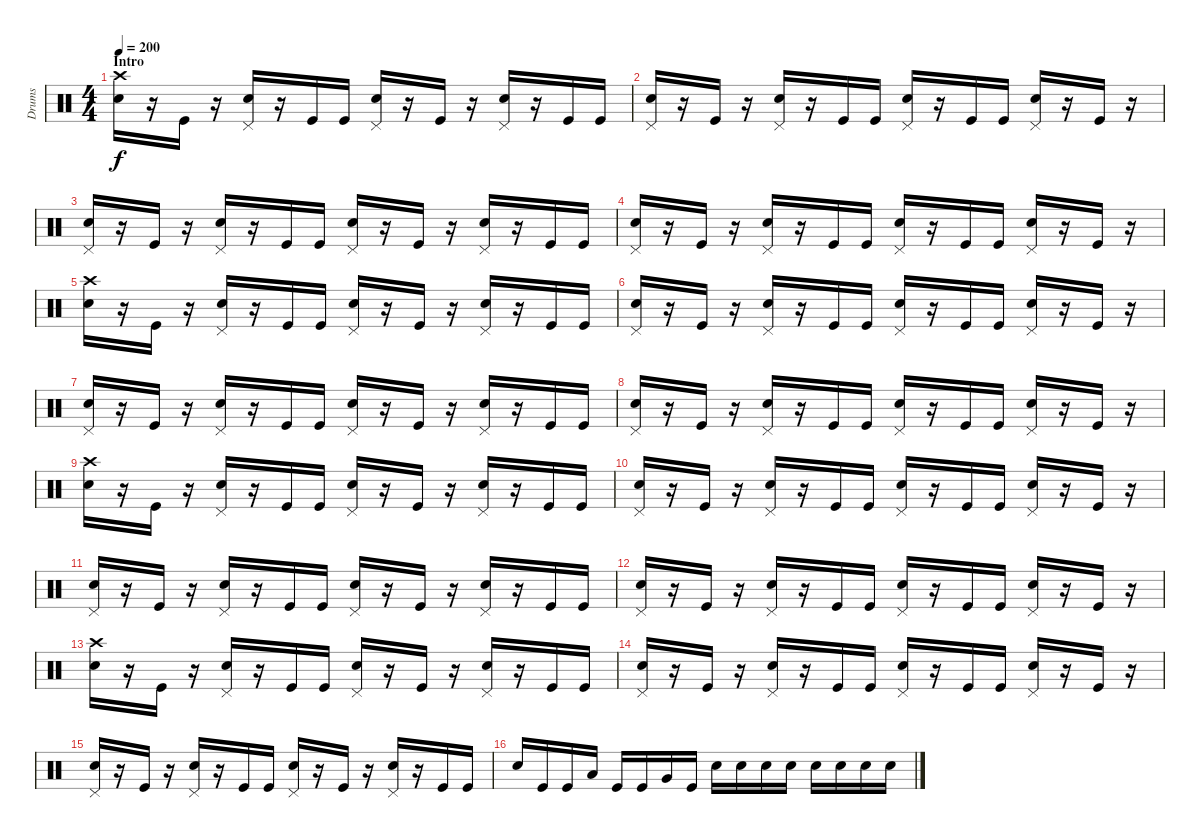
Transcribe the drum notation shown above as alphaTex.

\track ("Drums" "Drums") {instrument percussion}
\staff {score}
\articulation defaults
\ts (4 4)
\section ("" "Intro")
\tempo 200
\clef neutral
\ks c
("Crash high (hit)" "Snare (hit) 2").16{dy f} r.16 "Kick (hit)".16 r.16 ("Pedal Hi-Hat (hit)" "Snare (hit) 2").16 r.16 "Kick (hit)".16 "Kick (hit)".16 ("Pedal Hi-Hat (hit)" "Snare (hit) 2").16 r.16 "Kick (hit)".16 r.16 ("Pedal Hi-Hat (hit)" "Snare (hit) 2").16 r.16 "Kick (hit)".16 "Kick (hit)".16 |
("Pedal Hi-Hat (hit)" "Snare (hit) 2").16 r.16 "Kick (hit)".16 r.16 ("Pedal Hi-Hat (hit)" "Snare (hit) 2").16 r.16 "Kick (hit)".16 "Kick (hit)".16 ("Pedal Hi-Hat (hit)" "Snare (hit) 2").16 r.16 "Kick (hit)".16 "Kick (hit)".16 ("Pedal Hi-Hat (hit)" "Snare (hit) 2").16 r.16 "Kick (hit)".16 r.16 |
("Pedal Hi-Hat (hit)" "Snare (hit) 2").16 r.16 "Kick (hit)".16 r.16 ("Pedal Hi-Hat (hit)" "Snare (hit) 2").16 r.16 "Kick (hit)".16 "Kick (hit)".16 ("Pedal Hi-Hat (hit)" "Snare (hit) 2").16 r.16 "Kick (hit)".16 r.16 ("Pedal Hi-Hat (hit)" "Snare (hit) 2").16 r.16 "Kick (hit)".16 "Kick (hit)".16 |
("Pedal Hi-Hat (hit)" "Snare (hit) 2").16 r.16 "Kick (hit)".16 r.16 ("Pedal Hi-Hat (hit)" "Snare (hit) 2").16 r.16 "Kick (hit)".16 "Kick (hit)".16 ("Pedal Hi-Hat (hit)" "Snare (hit) 2").16 r.16 "Kick (hit)".16 "Kick (hit)".16 ("Pedal Hi-Hat (hit)" "Snare (hit) 2").16 r.16 "Kick (hit)".16 r.16 |
("Crash high (hit)" "Snare (hit) 2").16 r.16 "Kick (hit)".16 r.16 ("Pedal Hi-Hat (hit)" "Snare (hit) 2").16 r.16 "Kick (hit)".16 "Kick (hit)".16 ("Pedal Hi-Hat (hit)" "Snare (hit) 2").16 r.16 "Kick (hit)".16 r.16 ("Pedal Hi-Hat (hit)" "Snare (hit) 2").16 r.16 "Kick (hit)".16 "Kick (hit)".16 |
("Pedal Hi-Hat (hit)" "Snare (hit) 2").16 r.16 "Kick (hit)".16 r.16 ("Pedal Hi-Hat (hit)" "Snare (hit) 2").16 r.16 "Kick (hit)".16 "Kick (hit)".16 ("Pedal Hi-Hat (hit)" "Snare (hit) 2").16 r.16 "Kick (hit)".16 "Kick (hit)".16 ("Pedal Hi-Hat (hit)" "Snare (hit) 2").16 r.16 "Kick (hit)".16 r.16 |
("Pedal Hi-Hat (hit)" "Snare (hit) 2").16 r.16 "Kick (hit)".16 r.16 ("Pedal Hi-Hat (hit)" "Snare (hit) 2").16 r.16 "Kick (hit)".16 "Kick (hit)".16 ("Pedal Hi-Hat (hit)" "Snare (hit) 2").16 r.16 "Kick (hit)".16 r.16 ("Pedal Hi-Hat (hit)" "Snare (hit) 2").16 r.16 "Kick (hit)".16 "Kick (hit)".16 |
("Pedal Hi-Hat (hit)" "Snare (hit) 2").16 r.16 "Kick (hit)".16 r.16 ("Pedal Hi-Hat (hit)" "Snare (hit) 2").16 r.16 "Kick (hit)".16 "Kick (hit)".16 ("Pedal Hi-Hat (hit)" "Snare (hit) 2").16 r.16 "Kick (hit)".16 "Kick (hit)".16 ("Pedal Hi-Hat (hit)" "Snare (hit) 2").16 r.16 "Kick (hit)".16 r.16 |
("Crash high (hit)" "Snare (hit) 2").16 r.16 "Kick (hit)".16 r.16 ("Pedal Hi-Hat (hit)" "Snare (hit) 2").16 r.16 "Kick (hit)".16 "Kick (hit)".16 ("Pedal Hi-Hat (hit)" "Snare (hit) 2").16 r.16 "Kick (hit)".16 r.16 ("Pedal Hi-Hat (hit)" "Snare (hit) 2").16 r.16 "Kick (hit)".16 "Kick (hit)".16 |
("Pedal Hi-Hat (hit)" "Snare (hit) 2").16 r.16 "Kick (hit)".16 r.16 ("Pedal Hi-Hat (hit)" "Snare (hit) 2").16 r.16 "Kick (hit)".16 "Kick (hit)".16 ("Pedal Hi-Hat (hit)" "Snare (hit) 2").16 r.16 "Kick (hit)".16 "Kick (hit)".16 ("Pedal Hi-Hat (hit)" "Snare (hit) 2").16 r.16 "Kick (hit)".16 r.16 |
("Pedal Hi-Hat (hit)" "Snare (hit) 2").16 r.16 "Kick (hit)".16 r.16 ("Pedal Hi-Hat (hit)" "Snare (hit) 2").16 r.16 "Kick (hit)".16 "Kick (hit)".16 ("Pedal Hi-Hat (hit)" "Snare (hit) 2").16 r.16 "Kick (hit)".16 r.16 ("Pedal Hi-Hat (hit)" "Snare (hit) 2").16 r.16 "Kick (hit)".16 "Kick (hit)".16 |
("Pedal Hi-Hat (hit)" "Snare (hit) 2").16 r.16 "Kick (hit)".16 r.16 ("Pedal Hi-Hat (hit)" "Snare (hit) 2").16 r.16 "Kick (hit)".16 "Kick (hit)".16 ("Pedal Hi-Hat (hit)" "Snare (hit) 2").16 r.16 "Kick (hit)".16 "Kick (hit)".16 ("Pedal Hi-Hat (hit)" "Snare (hit) 2").16 r.16 "Kick (hit)".16 r.16 |
("Crash high (hit)" "Snare (hit) 2").16 r.16 "Kick (hit)".16 r.16 ("Pedal Hi-Hat (hit)" "Snare (hit) 2").16 r.16 "Kick (hit)".16 "Kick (hit)".16 ("Pedal Hi-Hat (hit)" "Snare (hit) 2").16 r.16 "Kick (hit)".16 r.16 ("Pedal Hi-Hat (hit)" "Snare (hit) 2").16 r.16 "Kick (hit)".16 "Kick (hit)".16 |
("Pedal Hi-Hat (hit)" "Snare (hit) 2").16 r.16 "Kick (hit)".16 r.16 ("Pedal Hi-Hat (hit)" "Snare (hit) 2").16 r.16 "Kick (hit)".16 "Kick (hit)".16 ("Pedal Hi-Hat (hit)" "Snare (hit) 2").16 r.16 "Kick (hit)".16 "Kick (hit)".16 ("Pedal Hi-Hat (hit)" "Snare (hit) 2").16 r.16 "Kick (hit)".16 r.16 |
("Pedal Hi-Hat (hit)" "Snare (hit) 2").16 r.16 "Kick (hit)".16 r.16 ("Pedal Hi-Hat (hit)" "Snare (hit) 2").16 r.16 "Kick (hit)".16 "Kick (hit)".16 ("Pedal Hi-Hat (hit)" "Snare (hit) 2").16 r.16 "Kick (hit)".16 r.16 ("Pedal Hi-Hat (hit)" "Snare (hit) 2").16 r.16 "Kick (hit)".16 "Kick (hit)".16 |
"Snare (hit) 2".16 "Kick (hit)".16 "Kick (hit)".16 "Low Tom (hit)".16 "Kick (hit)".16 "Kick (hit)".16 "Very Low Tom (hit)".16 "Kick (hit)".16 "Snare (hit) 2".16 "Snare (hit) 2".16 "Snare (hit) 2".16 "Snare (hit) 2".16 "Snare (hit) 2".16 "Snare (hit) 2".16 "Snare (hit) 2".16 "Snare (hit) 2".16
